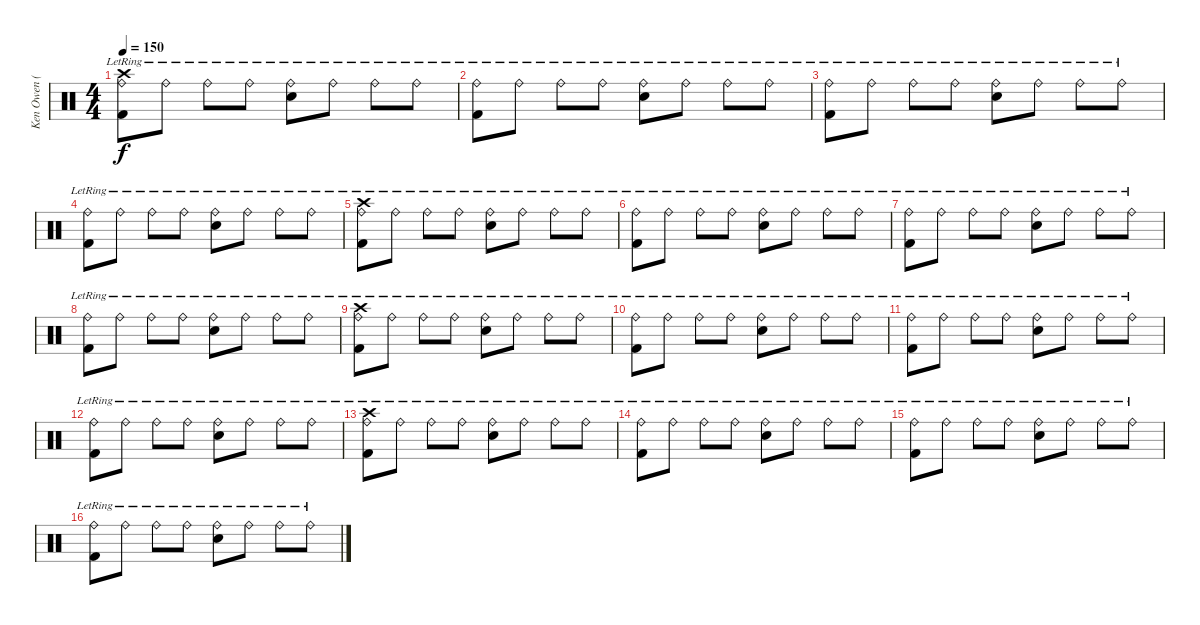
\track ("Ken Owen (Drums)" "Ken Owen (") {instrument percussion}
\staff {score}
\articulation defaults
\ts (4 4)
\tempo 150
\clef neutral
\ks c
("Crash high (hit)"{lr} "Ride (bell)"{lr} "Kick (hit) 2").8{dy f} "Ride (bell)"{lr}.8 "Ride (bell)"{lr}.8 "Ride (bell)"{lr}.8 ("Ride (bell)"{lr} "Snare (hit) 2").8 "Ride (bell)"{lr}.8 "Ride (bell)"{lr}.8 "Ride (bell)"{lr}.8 |
("Ride (bell)"{lr} "Kick (hit) 2").8 "Ride (bell)"{lr}.8 "Ride (bell)"{lr}.8 "Ride (bell)"{lr}.8 ("Ride (bell)"{lr} "Snare (hit) 2").8 "Ride (bell)"{lr}.8 "Ride (bell)"{lr}.8 "Ride (bell)"{lr}.8 |
("Ride (bell)"{lr} "Kick (hit) 2").8 "Ride (bell)"{lr}.8 "Ride (bell)"{lr}.8 "Ride (bell)"{lr}.8 ("Ride (bell)"{lr} "Snare (hit) 2").8 "Ride (bell)"{lr}.8 "Ride (bell)"{lr}.8 "Ride (bell)"{lr}.8 |
("Ride (bell)"{lr} "Kick (hit) 2").8 "Ride (bell)"{lr}.8 "Ride (bell)"{lr}.8 "Ride (bell)"{lr}.8 ("Ride (bell)"{lr} "Snare (hit) 2").8 "Ride (bell)"{lr}.8 "Ride (bell)"{lr}.8 "Ride (bell)"{lr}.8 |
("Crash high (hit)"{lr} "Ride (bell)"{lr} "Kick (hit) 2").8 "Ride (bell)"{lr}.8 "Ride (bell)"{lr}.8 "Ride (bell)"{lr}.8 ("Ride (bell)"{lr} "Snare (hit) 2").8 "Ride (bell)"{lr}.8 "Ride (bell)"{lr}.8 "Ride (bell)"{lr}.8 |
("Ride (bell)"{lr} "Kick (hit) 2").8 "Ride (bell)"{lr}.8 "Ride (bell)"{lr}.8 "Ride (bell)"{lr}.8 ("Ride (bell)"{lr} "Snare (hit) 2").8 "Ride (bell)"{lr}.8 "Ride (bell)"{lr}.8 "Ride (bell)"{lr}.8 |
("Ride (bell)"{lr} "Kick (hit) 2").8 "Ride (bell)"{lr}.8 "Ride (bell)"{lr}.8 "Ride (bell)"{lr}.8 ("Ride (bell)"{lr} "Snare (hit) 2").8 "Ride (bell)"{lr}.8 "Ride (bell)"{lr}.8 "Ride (bell)"{lr}.8 |
("Ride (bell)"{lr} "Kick (hit) 2").8 "Ride (bell)"{lr}.8 "Ride (bell)"{lr}.8 "Ride (bell)"{lr}.8 ("Ride (bell)"{lr} "Snare (hit) 2").8 "Ride (bell)"{lr}.8 "Ride (bell)"{lr}.8 "Ride (bell)"{lr}.8 |
("Crash high (hit)"{lr} "Ride (bell)"{lr} "Kick (hit) 2").8 "Ride (bell)"{lr}.8 "Ride (bell)"{lr}.8 "Ride (bell)"{lr}.8 ("Ride (bell)"{lr} "Snare (hit) 2").8 "Ride (bell)"{lr}.8 "Ride (bell)"{lr}.8 "Ride (bell)"{lr}.8 |
("Ride (bell)"{lr} "Kick (hit) 2").8 "Ride (bell)"{lr}.8 "Ride (bell)"{lr}.8 "Ride (bell)"{lr}.8 ("Ride (bell)"{lr} "Snare (hit) 2").8 "Ride (bell)"{lr}.8 "Ride (bell)"{lr}.8 "Ride (bell)"{lr}.8 |
("Ride (bell)"{lr} "Kick (hit) 2").8 "Ride (bell)"{lr}.8 "Ride (bell)"{lr}.8 "Ride (bell)"{lr}.8 ("Ride (bell)"{lr} "Snare (hit) 2").8 "Ride (bell)"{lr}.8 "Ride (bell)"{lr}.8 "Ride (bell)"{lr}.8 |
("Ride (bell)"{lr} "Kick (hit) 2").8 "Ride (bell)"{lr}.8 "Ride (bell)"{lr}.8 "Ride (bell)"{lr}.8 ("Ride (bell)"{lr} "Snare (hit) 2").8 "Ride (bell)"{lr}.8 "Ride (bell)"{lr}.8 "Ride (bell)"{lr}.8 |
("Crash high (hit)" "Ride (bell)"{lr} "Kick (hit) 2").8 "Ride (bell)"{lr}.8 "Ride (bell)"{lr}.8 "Ride (bell)"{lr}.8 ("Ride (bell)"{lr} "Snare (hit) 2").8 "Ride (bell)"{lr}.8 "Ride (bell)"{lr}.8 "Ride (bell)"{lr}.8 |
("Ride (bell)"{lr} "Kick (hit) 2").8 "Ride (bell)"{lr}.8 "Ride (bell)"{lr}.8 "Ride (bell)"{lr}.8 ("Ride (bell)"{lr} "Snare (hit) 2").8 "Ride (bell)"{lr}.8 "Ride (bell)"{lr}.8 "Ride (bell)"{lr}.8 |
("Ride (bell)"{lr} "Kick (hit) 2").8 "Ride (bell)"{lr}.8 "Ride (bell)"{lr}.8 "Ride (bell)"{lr}.8 ("Ride (bell)"{lr} "Snare (hit) 2").8 "Ride (bell)"{lr}.8 "Ride (bell)"{lr}.8 "Ride (bell)"{lr}.8 |
("Ride (bell)"{lr} "Kick (hit) 2").8 "Ride (bell)"{lr}.8 "Ride (bell)"{lr}.8 "Ride (bell)"{lr}.8 ("Ride (bell)"{lr} "Snare (hit) 2").8 "Ride (bell)"{lr}.8 "Ride (bell)"{lr}.8 "Ride (bell)"{lr}.8
